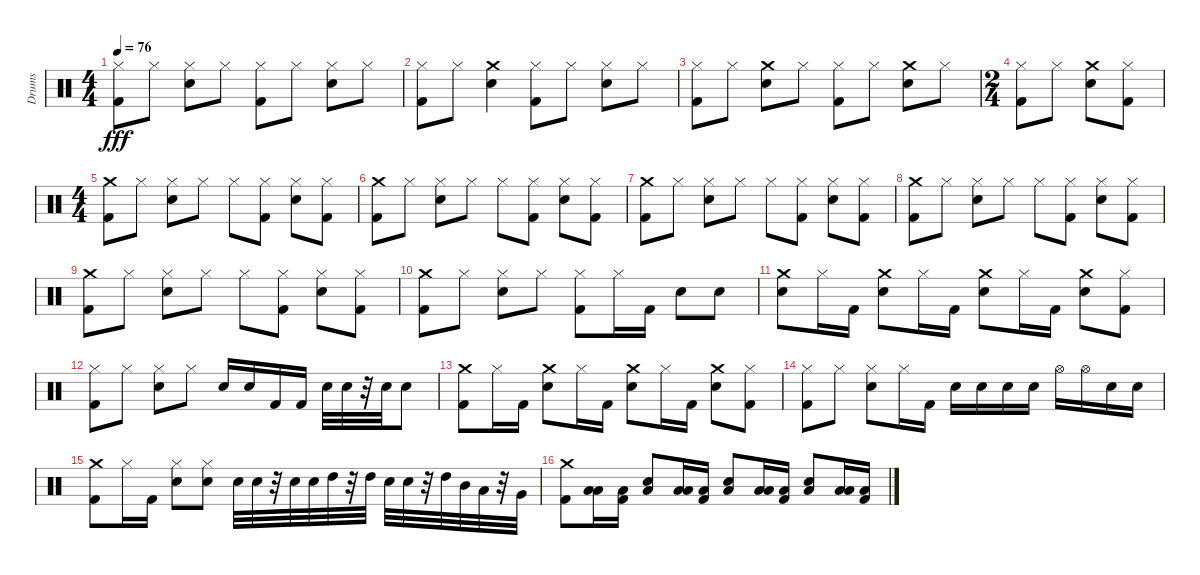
\track ("Drums" "Drums") {instrument percussion}
\staff {score}
\articulation defaults
\ts (4 4)
\tempo 76
\clef neutral
\ks c
("Hi-Hat (closed)" "Kick (hit) 2").8{dy fff} "Hi-Hat (closed)".8 ("Hi-Hat (closed)" "Snare (hit) 2").8 "Hi-Hat (closed)".8 ("Hi-Hat (closed)" "Kick (hit) 2").8 "Hi-Hat (closed)".8 ("Hi-Hat (closed)" "Snare (hit) 2").8 "Hi-Hat (closed)".8 |
("Hi-Hat (closed)" "Kick (hit) 2").8 "Hi-Hat (closed)".8 ("Snare (hit) 2" "Crash medium (hit)").4 ("Hi-Hat (closed)" "Kick (hit) 2").8 "Hi-Hat (closed)".8 ("Hi-Hat (closed)" "Snare (hit) 2").8 "Hi-Hat (closed)".8 |
("Kick (hit) 2" "Hi-Hat (closed)").8 "Hi-Hat (closed)".8 ("Snare (hit) 2" "Crash medium (hit)").8 "Hi-Hat (closed)".8 ("Hi-Hat (closed)" "Kick (hit) 2").8 "Hi-Hat (closed)".8 ("Snare (hit) 2" "Crash medium (hit)").8 "Hi-Hat (closed)".8 |
\ts (2 4)
("Hi-Hat (closed)" "Kick (hit) 2").8 "Hi-Hat (closed)".8 ("Snare (hit) 2" "Crash medium (hit)").8 ("Hi-Hat (closed)" "Kick (hit) 2").8 |
\ts (4 4)
("Kick (hit) 2" "Crash medium (hit)").8 "Hi-Hat (closed)".8 ("Hi-Hat (closed)" "Snare (hit) 2").8 "Hi-Hat (closed)".8 "Hi-Hat (closed)".8 ("Hi-Hat (closed)" "Kick (hit) 2").8 ("Hi-Hat (closed)" "Snare (hit) 2").8 ("Hi-Hat (closed)" "Kick (hit) 2").8 |
("Crash medium (hit)" "Kick (hit) 2").8 "Hi-Hat (closed)".8 ("Hi-Hat (closed)" "Snare (hit) 2").8 "Hi-Hat (closed)".8 "Hi-Hat (closed)".8 ("Hi-Hat (closed)" "Kick (hit) 2").8 ("Hi-Hat (closed)" "Snare (hit) 2").8 ("Hi-Hat (closed)" "Kick (hit) 2").8 |
("Kick (hit) 2" "Crash medium (hit)").8 "Hi-Hat (closed)".8 ("Hi-Hat (closed)" "Snare (hit) 2").8 "Hi-Hat (closed)".8 "Hi-Hat (closed)".8 ("Hi-Hat (closed)" "Kick (hit) 2").8 ("Hi-Hat (closed)" "Snare (hit) 2").8 ("Hi-Hat (closed)" "Kick (hit) 2").8 |
("Kick (hit) 2" "Crash medium (hit)").8 "Hi-Hat (closed)".8 ("Hi-Hat (closed)" "Snare (hit) 2").8 "Hi-Hat (closed)".8 "Hi-Hat (closed)".8 ("Hi-Hat (closed)" "Kick (hit) 2").8 ("Hi-Hat (closed)" "Snare (hit) 2").8 ("Hi-Hat (closed)" "Kick (hit) 2").8 |
("Kick (hit) 2" "Crash medium (hit)").8 "Hi-Hat (closed)".8 ("Hi-Hat (closed)" "Snare (hit) 2").8 "Hi-Hat (closed)".8 "Hi-Hat (closed)".8 ("Hi-Hat (closed)" "Kick (hit) 2").8 ("Hi-Hat (closed)" "Snare (hit) 2").8 ("Hi-Hat (closed)" "Kick (hit) 2").8 |
("Kick (hit) 2" "Crash medium (hit)").8 "Hi-Hat (closed)".8 ("Hi-Hat (closed)" "Snare (hit) 2").8 "Hi-Hat (closed)".8 ("Hi-Hat (closed)" "Kick (hit) 2").8 "Hi-Hat (closed)".16 "Kick (hit) 2".16 "Snare (hit) 2".8 "Snare (hit) 2".8 |
("Crash medium (hit)" "Snare (hit) 2").8 "Hi-Hat (closed)".16 "Kick (hit) 2".16 ("Snare (hit) 2" "Crash medium (hit)").8 "Hi-Hat (closed)".16 "Kick (hit) 2".16 ("Snare (hit) 2" "Crash medium (hit)").8 "Hi-Hat (closed)".16 "Kick (hit) 2".16 ("Snare (hit) 2" "Crash medium (hit)").8 ("Hi-Hat (closed)" "Kick (hit) 2").8 |
("Kick (hit) 2" "Hi-Hat (closed)").8 "Hi-Hat (closed)".8 ("Hi-Hat (closed)" "Snare (hit) 2").8 "Hi-Hat (closed)".8 "Snare (hit) 2".16 "Snare (hit) 2".16 "Kick (hit) 2".16 "Kick (hit) 2".16 "Snare (hit) 2".32 "Snare (hit) 2".32 r.32 "Snare (hit) 2".32 "Snare (hit) 2".8 |
("Crash medium (hit)" "Kick (hit) 2").8 "Hi-Hat (closed)".16 "Kick (hit) 2".16 ("Snare (hit) 2" "Crash medium (hit)").8 "Hi-Hat (closed)".16 "Kick (hit) 2".16 ("Snare (hit) 2" "Crash medium (hit)").8 "Hi-Hat (closed)".16 "Kick (hit) 2".16 ("Snare (hit) 2" "Crash medium (hit)").8 ("Hi-Hat (closed)" "Kick (hit) 2").8 |
("Kick (hit) 2" "Hi-Hat (closed)").8 "Hi-Hat (closed)".8 ("Hi-Hat (closed)" "Snare (hit) 2").8 "Hi-Hat (closed)".16 "Kick (hit) 2".16 "Snare (hit) 2".16 "Snare (hit) 2".16 "Snare (hit) 2".16 "Snare (hit) 2".16 "Hi-Hat (open)".16 "Hi-Hat (open)".16 "Snare (hit) 2".16 "Snare (hit) 2".16 |
("Kick (hit) 2" "Crash medium (hit)").8 "Hi-Hat (closed)".16 "Kick (hit) 2".16 ("Hi-Hat (closed)" "Snare (hit) 2").8 ("Hi-Hat (closed)" "Snare (hit) 2").8 "Snare (hit) 2".32 "Snare (hit) 2".32 r.32 "Snare (hit) 2".32 "Snare (hit) 2".32 "High Tom (hit)".32 r.32 "High Tom (hit)".32 "Snare (hit) 2".32 "Snare (hit) 2".32 r.32 "High Tom (hit)".32 "Mid Tom (hit)".32 "Low Tom (hit)".32 r.32 "Very Low Tom (hit)".32 |
("Crash medium (hit)" "Kick (hit) 2").8 ("Low Floor Tom (hit)" "Low Tom (hit)").16 ("Kick (hit) 2" "Low Floor Tom (hit)").16 ("Snare (hit) 2" "Low Tom (hit)").8 ("Low Tom (hit)" "Low Floor Tom (hit)").16 ("Kick (hit) 2" "Low Floor Tom (hit)").16 ("Snare (hit) 2" "Low Tom (hit)").8 ("Low Tom (hit)" "Low Floor Tom (hit)").16 ("Kick (hit) 2" "Low Floor Tom (hit)").16 ("Snare (hit) 2" "Low Tom (hit)").8 ("Low Tom (hit)" "Low Floor Tom (hit)").16 ("Kick (hit) 2" "Low Floor Tom (hit)").16
